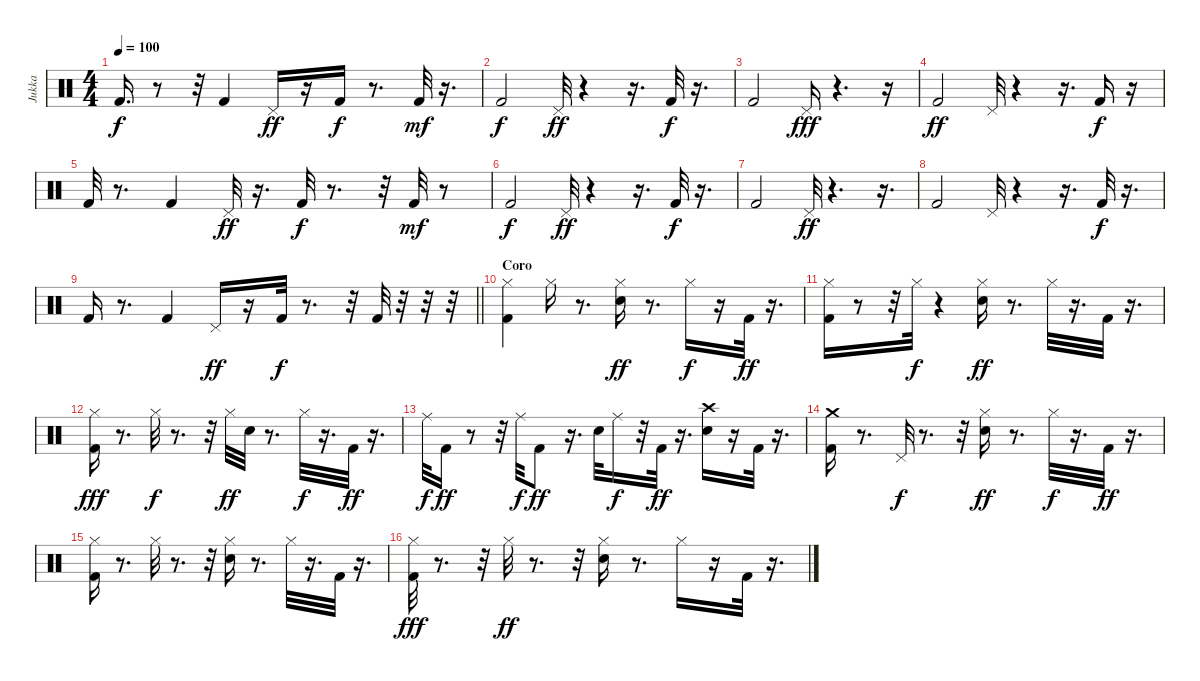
\track ("Jukka" "Jukka") {instrument percussion}
\staff {score}
\articulation defaults
\ts (4 4)
\tempo 100
\clef neutral
\ks c "Kick (hit) 2".16{d dy f}
r.8 r.32 "Kick (hit) 2".4 "Pedal Hi-Hat (hit)".16{dy ff} r.16 "Kick (hit) 2".16{dy f} r.8{d} "Kick (hit) 2".32{dy mf} r.16{d} |
"Kick (hit) 2".2{dy f} "Pedal Hi-Hat (hit)".32{dy ff} r.4 r.16{d} "Kick (hit) 2".32{dy f} r.16{d} |
"Kick (hit) 2".2 "Pedal Hi-Hat (hit)".16{dy fff} r.4{d} r.16 |
"Kick (hit) 2".2{dy ff} "Pedal Hi-Hat (hit)".32 r.4 r.16{d} "Kick (hit) 2".16{dy f} r.16 |
"Kick (hit) 2".32 r.8{d} "Kick (hit) 2".4 "Pedal Hi-Hat (hit)".32{dy ff} r.16{d} "Kick (hit) 2".32{dy f} r.8{d} r.32 "Kick (hit) 2".32{dy mf} r.8 |
"Kick (hit) 2".2{dy f} "Pedal Hi-Hat (hit)".32{dy ff} r.4 r.16{d} "Kick (hit) 2".32{dy f} r.16{d} |
"Kick (hit) 2".2 "Pedal Hi-Hat (hit)".32{dy ff} r.4{d} r.16{d} |
"Kick (hit) 2".2 "Pedal Hi-Hat (hit)".32 r.4 r.16{d} "Kick (hit) 2".32{dy f} r.16{d} |
\barLineRight lightlight "Kick (hit) 2".16
r.8{d} "Kick (hit) 2".4 "Pedal Hi-Hat (hit)".16{dy ff} r.16 "Kick (hit) 2".32{dy f} r.8{d} r.32 "Kick (hit) 2".32 r.32 r.32 r.32 |
\section ("" "Coro")
("Hi-Hat (closed)" "Kick (hit) 2").4 "Hi-Hat (closed)".16 r.8{d} ("Hi-Hat (closed)" "Electric Snare (hit)").16{dy ff} r.8{d} "Hi-Hat (closed)".16{dy f} r.16 "Kick (hit) 2".32{dy ff} r.16{d} |
("Hi-Hat (closed)" "Kick (hit) 2").16 r.8 r.32 "Hi-Hat (closed)".32{dy f} r.4 ("Hi-Hat (closed)" "Electric Snare (hit)").16{dy ff} r.8{d} "Hi-Hat (closed)".32 r.16{d} "Kick (hit) 2".32 r.16{d} |
("Hi-Hat (closed)" "Kick (hit) 2").16{dy fff} r.8{d} "Hi-Hat (closed)".32{dy f} r.8{d} r.32 "Hi-Hat (closed)".32{dy ff} "Electric Snare (hit)".32 r.8{d} "Hi-Hat (closed)".32{dy f} r.16{d} "Kick (hit) 2".32{dy ff} r.16{d} |
"Ride (middle)".32{dy f} "Kick (hit) 2".16{dy ff} r.8 r.32 "Ride (middle)".32{dy f} "Kick (hit) 2".8{dy ff} r.16{d} "Electric Snare (hit)".32 "Ride (middle)".16{dy f} r.32 "Kick (hit) 2".32{dy ff} r.16{d} ("Crash high (hit)" "Electric Snare (hit)").16 r.16 "Kick (hit) 2".32 r.16{d} |
("Crash medium (hit)" "Kick (hit) 2").16 r.8{d} "Pedal Hi-Hat (hit)".32{dy f} r.8{d} r.32 ("Hi-Hat (closed)" "Electric Snare (hit)").16{dy ff} r.8{d} "Hi-Hat (closed)".32{dy f} r.16{d} "Kick (hit) 2".32{dy ff} r.16{d} |
("Hi-Hat (closed)" "Kick (hit) 2").16 r.8{d} "Hi-Hat (closed)".32 r.8{d} r.32 ("Hi-Hat (closed)" "Electric Snare (hit)").16 r.8{d} "Hi-Hat (closed)".32 r.16{d} "Kick (hit) 2".32 r.16{d} |
("Hi-Hat (closed)" "Kick (hit) 2").32{dy fff} r.8{d} r.32 "Hi-Hat (closed)".32{dy ff} r.8{d} r.32 ("Hi-Hat (closed)" "Electric Snare (hit)").16 r.8{d} "Hi-Hat (closed)".16 r.16 "Kick (hit) 2".32 r.16{d}
